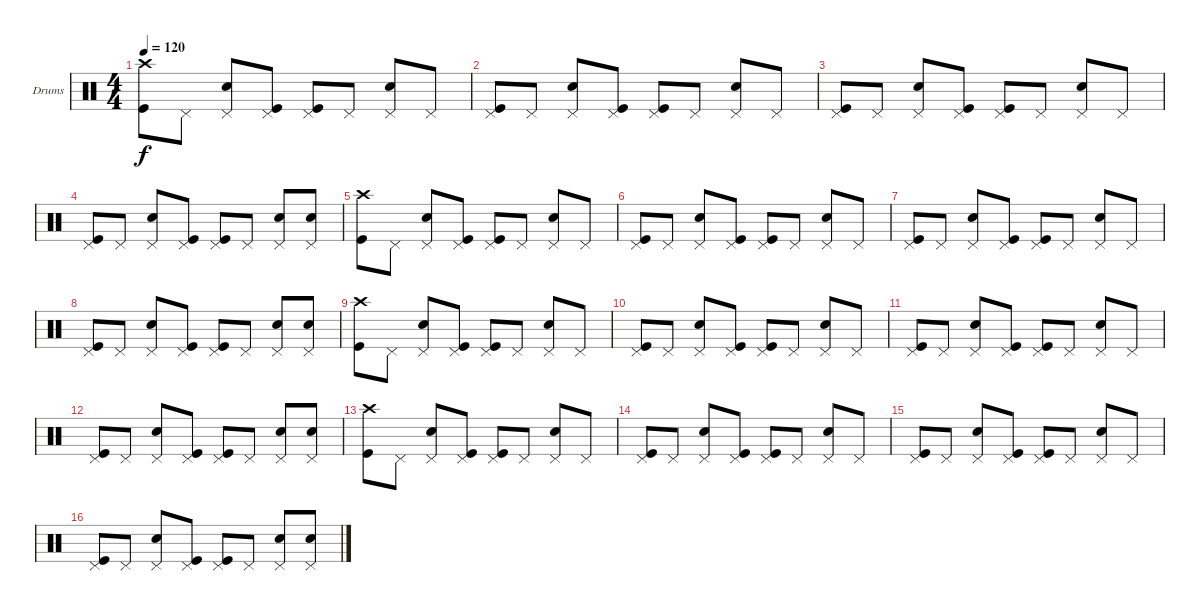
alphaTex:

\defaultSystemsLayout 4
\bracketExtendMode groupsimilarinstruments
\firstSystemTrackNameOrientation horizontal
\otherSystemsTrackNameOrientation horizontal
\track ("Drumkit" "Drums") {instrument percussion}
\staff {score}
\articulation defaults
\ts (4 4)
\tempo 120
\clef neutral
\ks c
("Crash high (hit)" "Kick (hit)").8{dy f} "Pedal Hi-Hat (hit)".8 ("Pedal Hi-Hat (hit)" "Snare (hit) 2").8 ("Pedal Hi-Hat (hit)" "Kick (hit)").8 ("Pedal Hi-Hat (hit)" "Kick (hit)").8 "Pedal Hi-Hat (hit)".8 ("Pedal Hi-Hat (hit)" "Snare (hit) 2").8 "Pedal Hi-Hat (hit)".8 |
("Pedal Hi-Hat (hit)" "Kick (hit)").8 "Pedal Hi-Hat (hit)".8 ("Pedal Hi-Hat (hit)" "Snare (hit) 2").8 ("Pedal Hi-Hat (hit)" "Kick (hit)").8 ("Pedal Hi-Hat (hit)" "Kick (hit)").8 "Pedal Hi-Hat (hit)".8 ("Pedal Hi-Hat (hit)" "Snare (hit) 2").8 "Pedal Hi-Hat (hit)".8 |
("Pedal Hi-Hat (hit)" "Kick (hit)").8 "Pedal Hi-Hat (hit)".8 ("Pedal Hi-Hat (hit)" "Snare (hit) 2").8 ("Pedal Hi-Hat (hit)" "Kick (hit)").8 ("Pedal Hi-Hat (hit)" "Kick (hit)").8 "Pedal Hi-Hat (hit)".8 ("Pedal Hi-Hat (hit)" "Snare (hit) 2").8 "Pedal Hi-Hat (hit)".8 |
("Pedal Hi-Hat (hit)" "Kick (hit)").8 "Pedal Hi-Hat (hit)".8 ("Pedal Hi-Hat (hit)" "Snare (hit) 2").8 ("Pedal Hi-Hat (hit)" "Kick (hit)").8 ("Pedal Hi-Hat (hit)" "Kick (hit)").8 "Pedal Hi-Hat (hit)".8 ("Pedal Hi-Hat (hit)" "Snare (hit) 2").8 ("Pedal Hi-Hat (hit)" "Snare (hit) 2").8 |
("Crash high (hit)" "Kick (hit)").8 "Pedal Hi-Hat (hit)".8 ("Pedal Hi-Hat (hit)" "Snare (hit) 2").8 ("Pedal Hi-Hat (hit)" "Kick (hit)").8 ("Pedal Hi-Hat (hit)" "Kick (hit)").8 "Pedal Hi-Hat (hit)".8 ("Pedal Hi-Hat (hit)" "Snare (hit) 2").8 "Pedal Hi-Hat (hit)".8 |
("Pedal Hi-Hat (hit)" "Kick (hit)").8 "Pedal Hi-Hat (hit)".8 ("Pedal Hi-Hat (hit)" "Snare (hit) 2").8 ("Pedal Hi-Hat (hit)" "Kick (hit)").8 ("Pedal Hi-Hat (hit)" "Kick (hit)").8 "Pedal Hi-Hat (hit)".8 ("Pedal Hi-Hat (hit)" "Snare (hit) 2").8 "Pedal Hi-Hat (hit)".8 |
("Pedal Hi-Hat (hit)" "Kick (hit)").8 "Pedal Hi-Hat (hit)".8 ("Pedal Hi-Hat (hit)" "Snare (hit) 2").8 ("Pedal Hi-Hat (hit)" "Kick (hit)").8 ("Pedal Hi-Hat (hit)" "Kick (hit)").8 "Pedal Hi-Hat (hit)".8 ("Pedal Hi-Hat (hit)" "Snare (hit) 2").8 "Pedal Hi-Hat (hit)".8 |
("Pedal Hi-Hat (hit)" "Kick (hit)").8 "Pedal Hi-Hat (hit)".8 ("Pedal Hi-Hat (hit)" "Snare (hit) 2").8 ("Pedal Hi-Hat (hit)" "Kick (hit)").8 ("Pedal Hi-Hat (hit)" "Kick (hit)").8 "Pedal Hi-Hat (hit)".8 ("Pedal Hi-Hat (hit)" "Snare (hit) 2").8 ("Pedal Hi-Hat (hit)" "Snare (hit) 2").8 |
("Crash high (hit)" "Kick (hit)").8 "Pedal Hi-Hat (hit)".8 ("Pedal Hi-Hat (hit)" "Snare (hit) 2").8 ("Pedal Hi-Hat (hit)" "Kick (hit)").8 ("Pedal Hi-Hat (hit)" "Kick (hit)").8 "Pedal Hi-Hat (hit)".8 ("Pedal Hi-Hat (hit)" "Snare (hit) 2").8 "Pedal Hi-Hat (hit)".8 |
("Pedal Hi-Hat (hit)" "Kick (hit)").8 "Pedal Hi-Hat (hit)".8 ("Pedal Hi-Hat (hit)" "Snare (hit) 2").8 ("Pedal Hi-Hat (hit)" "Kick (hit)").8 ("Pedal Hi-Hat (hit)" "Kick (hit)").8 "Pedal Hi-Hat (hit)".8 ("Pedal Hi-Hat (hit)" "Snare (hit) 2").8 "Pedal Hi-Hat (hit)".8 |
("Pedal Hi-Hat (hit)" "Kick (hit)").8 "Pedal Hi-Hat (hit)".8 ("Pedal Hi-Hat (hit)" "Snare (hit) 2").8 ("Pedal Hi-Hat (hit)" "Kick (hit)").8 ("Pedal Hi-Hat (hit)" "Kick (hit)").8 "Pedal Hi-Hat (hit)".8 ("Pedal Hi-Hat (hit)" "Snare (hit) 2").8 "Pedal Hi-Hat (hit)".8 |
("Pedal Hi-Hat (hit)" "Kick (hit)").8 "Pedal Hi-Hat (hit)".8 ("Pedal Hi-Hat (hit)" "Snare (hit) 2").8 ("Pedal Hi-Hat (hit)" "Kick (hit)").8 ("Pedal Hi-Hat (hit)" "Kick (hit)").8 "Pedal Hi-Hat (hit)".8 ("Pedal Hi-Hat (hit)" "Snare (hit) 2").8 ("Pedal Hi-Hat (hit)" "Snare (hit) 2").8 |
("Crash high (hit)" "Kick (hit)").8 "Pedal Hi-Hat (hit)".8 ("Pedal Hi-Hat (hit)" "Snare (hit) 2").8 ("Pedal Hi-Hat (hit)" "Kick (hit)").8 ("Pedal Hi-Hat (hit)" "Kick (hit)").8 "Pedal Hi-Hat (hit)".8 ("Pedal Hi-Hat (hit)" "Snare (hit) 2").8 "Pedal Hi-Hat (hit)".8 |
("Pedal Hi-Hat (hit)" "Kick (hit)").8 "Pedal Hi-Hat (hit)".8 ("Pedal Hi-Hat (hit)" "Snare (hit) 2").8 ("Pedal Hi-Hat (hit)" "Kick (hit)").8 ("Pedal Hi-Hat (hit)" "Kick (hit)").8 "Pedal Hi-Hat (hit)".8 ("Pedal Hi-Hat (hit)" "Snare (hit) 2").8 "Pedal Hi-Hat (hit)".8 |
("Pedal Hi-Hat (hit)" "Kick (hit)").8 "Pedal Hi-Hat (hit)".8 ("Pedal Hi-Hat (hit)" "Snare (hit) 2").8 ("Pedal Hi-Hat (hit)" "Kick (hit)").8 ("Pedal Hi-Hat (hit)" "Kick (hit)").8 "Pedal Hi-Hat (hit)".8 ("Pedal Hi-Hat (hit)" "Snare (hit) 2").8 "Pedal Hi-Hat (hit)".8 |
("Pedal Hi-Hat (hit)" "Kick (hit)").8 "Pedal Hi-Hat (hit)".8 ("Pedal Hi-Hat (hit)" "Snare (hit) 2").8 ("Pedal Hi-Hat (hit)" "Kick (hit)").8 ("Pedal Hi-Hat (hit)" "Kick (hit)").8 "Pedal Hi-Hat (hit)".8 ("Pedal Hi-Hat (hit)" "Snare (hit) 2").8 ("Pedal Hi-Hat (hit)" "Snare (hit) 2").8
